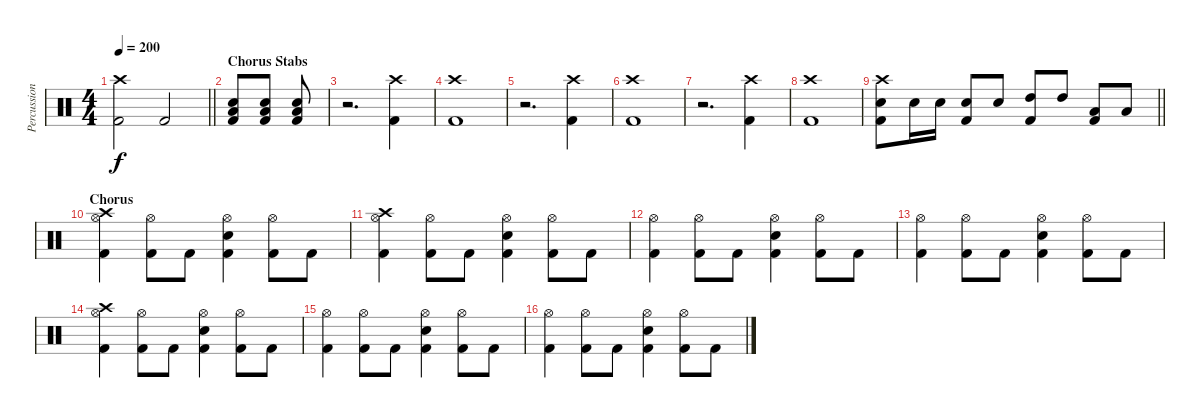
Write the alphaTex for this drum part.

\track ("Percussion" "Percussion") {instrument percussion}
\staff {score}
\articulation defaults
\ts (4 4)
\tempo 200
\clef neutral
\barLineRight lightlight
\ks c
("Crash high (hit)" "Kick (hit) 2").2{dy f} "Kick (hit) 2".2 |
\section ("" "Chorus Stabs")
("Low Tom (hit)" "Snare (hit) 2" "Kick (hit) 2").8 ("Low Tom (hit)" "Snare (hit) 2" "Kick (hit) 2").8 ("Low Tom (hit)" "Snare (hit) 2" "Kick (hit) 2").8 |
r.2{d} ("Crash high (hit)" "Kick (hit) 2").4 |
("Crash high (hit)" "Kick (hit) 2").1 |
r.2{d} ("Crash high (hit)" "Kick (hit) 2").4 |
("Crash high (hit)" "Kick (hit) 2").1 |
r.2{d} ("Crash high (hit)" "Kick (hit) 2").4 |
("Crash high (hit)" "Kick (hit) 2").1 |
\barLineRight lightlight
("Crash high (hit)" "Snare (hit) 2" "Kick (hit) 2").8 "Snare (hit) 2".16 "Snare (hit) 2".16 ("Snare (hit) 2" "Kick (hit) 2").8 "Snare (hit) 2".8 ("High Tom (hit)" "Kick (hit) 2").8 "High Tom (hit)".8 ("Low Tom (hit)" "Kick (hit) 2").8 "Low Tom (hit)".8 |
\section ("" "Chorus")
("Crash high (hit)" "Hi-Hat (open)" "Kick (hit) 2").4 ("Hi-Hat (open)" "Kick (hit) 2").8 "Kick (hit) 2".8 ("Hi-Hat (open)" "Snare (hit) 2" "Kick (hit) 2").4 ("Hi-Hat (open)" "Kick (hit) 2").8 "Kick (hit) 2".8 |
("Crash high (hit)" "Hi-Hat (open)" "Kick (hit) 2").4 ("Hi-Hat (open)" "Kick (hit) 2").8 "Kick (hit) 2".8 ("Hi-Hat (open)" "Snare (hit) 2" "Kick (hit) 2").4 ("Hi-Hat (open)" "Kick (hit) 2").8 "Kick (hit) 2".8 |
("Hi-Hat (open)" "Kick (hit) 2").4 ("Hi-Hat (open)" "Kick (hit) 2").8 "Kick (hit) 2".8 ("Hi-Hat (open)" "Snare (hit) 2" "Kick (hit) 2").4 ("Hi-Hat (open)" "Kick (hit) 2").8 "Kick (hit) 2".8 |
("Hi-Hat (open)" "Kick (hit) 2").4 ("Hi-Hat (open)" "Kick (hit) 2").8 "Kick (hit) 2".8 ("Hi-Hat (open)" "Snare (hit) 2" "Kick (hit) 2").4 ("Hi-Hat (open)" "Kick (hit) 2").8 "Kick (hit) 2".8 |
("Crash high (hit)" "Hi-Hat (open)" "Kick (hit) 2").4 ("Hi-Hat (open)" "Kick (hit) 2").8 "Kick (hit) 2".8 ("Hi-Hat (open)" "Snare (hit) 2" "Kick (hit) 2").4 ("Hi-Hat (open)" "Kick (hit) 2").8 "Kick (hit) 2".8 |
("Hi-Hat (open)" "Kick (hit) 2").4 ("Hi-Hat (open)" "Kick (hit) 2").8 "Kick (hit) 2".8 ("Hi-Hat (open)" "Snare (hit) 2" "Kick (hit) 2").4 ("Hi-Hat (open)" "Kick (hit) 2").8 "Kick (hit) 2".8 |
("Hi-Hat (open)" "Kick (hit) 2").4 ("Hi-Hat (open)" "Kick (hit) 2").8 "Kick (hit) 2".8 ("Hi-Hat (open)" "Snare (hit) 2" "Kick (hit) 2").4 ("Hi-Hat (open)" "Kick (hit) 2").8 "Kick (hit) 2".8
